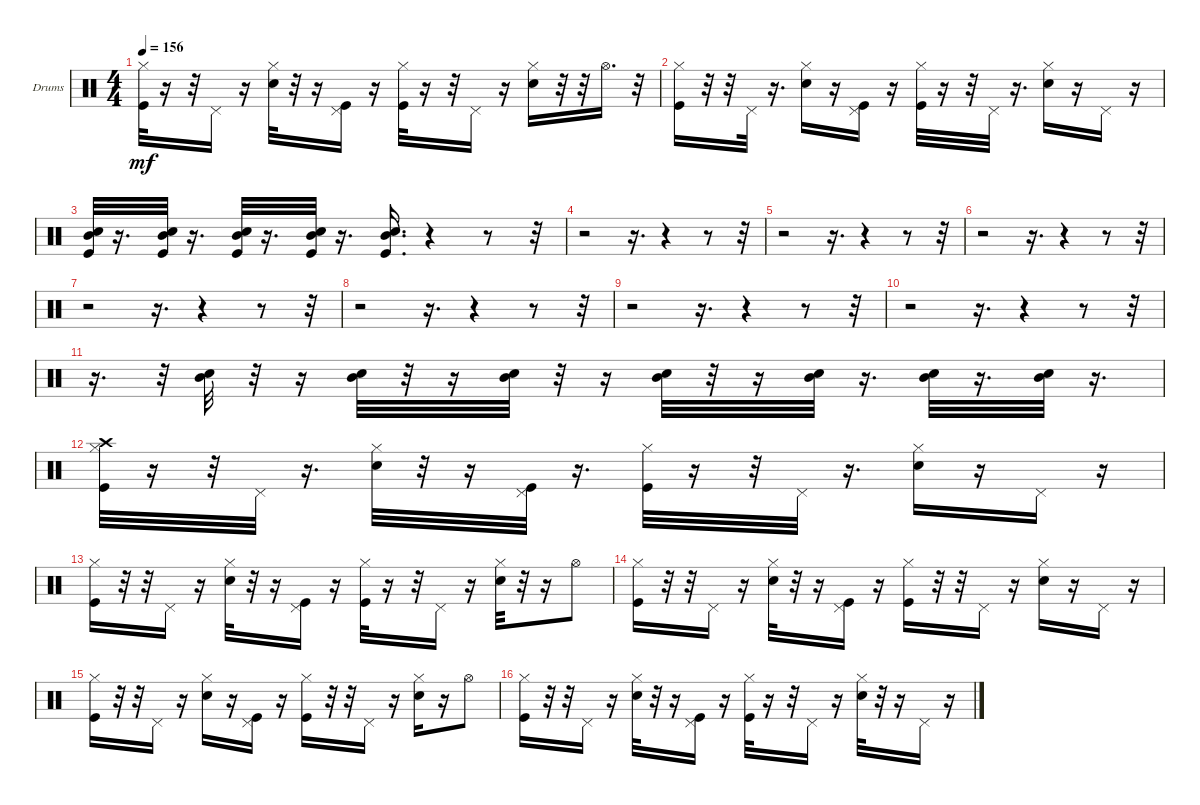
\defaultSystemsLayout 4
\bracketExtendMode groupsimilarinstruments
\firstSystemTrackNameOrientation horizontal
\otherSystemsTrackNameOrientation horizontal
\track ("Drumkit" "Drums") {instrument percussion}
\staff {score}
\articulation defaults
\ts (4 4)
\tempo 156
\clef neutral
\ks c
("Kick (hit)" "Hi-Hat (closed)").32{dy mf} r.16 r.32 "Pedal Hi-Hat (hit)".16 r.16 ("Snare (hit) 2" "Hi-Hat (closed)").32 r.32 r.16 ("Kick (hit)" "Pedal Hi-Hat (hit)").16 r.16 ("Kick (hit)" "Hi-Hat (closed)").32 r.16 r.32 "Pedal Hi-Hat (hit)".16 r.16 ("Snare (hit) 2" "Hi-Hat (closed)").16 r.32 r.32 "Hi-Hat (open)".16{d} r.32 |
("Kick (hit)" "Hi-Hat (closed)").16 r.32 r.32 "Pedal Hi-Hat (hit)".32 r.16{d} ("Snare (hit) 2" "Hi-Hat (closed)").16 r.16 ("Kick (hit)" "Pedal Hi-Hat (hit)").16 r.16 ("Kick (hit)" "Hi-Hat (closed)").32 r.16 r.32 "Pedal Hi-Hat (hit)".32 r.16{d} ("Snare (hit) 2" "Hi-Hat (closed)").16 r.16 "Pedal Hi-Hat (hit)".16 r.16 |
("Mid Tom (hit)" "Snare (hit) 2" "Kick (hit)").32 r.16{d} ("Mid Tom (hit)" "Snare (hit) 2" "Kick (hit)").32 r.16{d} ("Snare (hit) 2" "Mid Tom (hit)" "Kick (hit)").32 r.16{d} ("Mid Tom (hit)" "Kick (hit)" "Snare (hit) 2").32 r.16{d} ("Snare (hit) 2" "Kick (hit)" "Mid Tom (hit)").16{d} r.4 r.8 r.32 |
r.2 r.16{d} r.4 r.8 r.32 |
r.2 r.16{d} r.4 r.8 r.32 |
r.2 r.16{d} r.4 r.8 r.32 |
r.2 r.16{d} r.4 r.8 r.32 |
r.2 r.16{d} r.4 r.8 r.32 |
r.2 r.16{d} r.4 r.8 r.32 |
r.2 r.16{d} r.4 r.8 r.32 |
r.16{d} r.32 ("Snare (hit) 2" "Mid Tom (hit)").32 r.32 r.16 ("Snare (hit) 2" "Mid Tom (hit)").32 r.32 r.16 ("Snare (hit) 2" "Mid Tom (hit)").32 r.32 r.16 ("Snare (hit) 2" "Mid Tom (hit)").32 r.32 r.16 ("Snare (hit) 2" "Mid Tom (hit)").32 r.16{d} ("Mid Tom (hit)" "Snare (hit) 2").32 r.16{d} ("Snare (hit) 2" "Mid Tom (hit)").32 r.16{d} |
("Kick (hit)" "Crash high (hit)" "Hi-Hat (closed)").32 r.16 r.32 "Pedal Hi-Hat (hit)".32 r.16{d} ("Snare (hit) 2" "Hi-Hat (closed)").32 r.32 r.16 ("Kick (hit)" "Pedal Hi-Hat (hit)").32 r.16{d} ("Kick (hit)" "Hi-Hat (closed)").32 r.16 r.32 "Pedal Hi-Hat (hit)".32 r.16{d} ("Snare (hit) 2" "Hi-Hat (closed)").16 r.16 "Pedal Hi-Hat (hit)".16 r.16 |
("Kick (hit)" "Hi-Hat (closed)").16 r.32 r.32 "Pedal Hi-Hat (hit)".16 r.16 ("Snare (hit) 2" "Hi-Hat (closed)").32 r.32 r.16 ("Kick (hit)" "Pedal Hi-Hat (hit)").16 r.16 ("Kick (hit)" "Hi-Hat (closed)").32 r.16 r.32 "Pedal Hi-Hat (hit)".16 r.16 ("Snare (hit) 2" "Hi-Hat (closed)").32 r.32 r.16 "Hi-Hat (open)".8 |
("Kick (hit)" "Hi-Hat (closed)").16 r.32 r.32 "Pedal Hi-Hat (hit)".16 r.16 ("Snare (hit) 2" "Hi-Hat (closed)").32 r.32 r.16 ("Kick (hit)" "Pedal Hi-Hat (hit)").16 r.16 ("Kick (hit)" "Hi-Hat (closed)").16 r.32 r.32 "Pedal Hi-Hat (hit)".16 r.16 ("Snare (hit) 2" "Hi-Hat (closed)").16 r.16 "Pedal Hi-Hat (hit)".16 r.16 |
("Kick (hit)" "Hi-Hat (closed)").16 r.32 r.32 "Pedal Hi-Hat (hit)".16 r.16 ("Snare (hit) 2" "Hi-Hat (closed)").16 r.16 ("Kick (hit)" "Pedal Hi-Hat (hit)").16 r.16 ("Kick (hit)" "Hi-Hat (closed)").16 r.32 r.32 "Pedal Hi-Hat (hit)".16 r.16 ("Snare (hit) 2" "Hi-Hat (closed)").16 r.16 "Hi-Hat (open)".8 |
("Kick (hit)" "Hi-Hat (closed)").16 r.32 r.32 "Pedal Hi-Hat (hit)".16 r.16 ("Snare (hit) 2" "Hi-Hat (closed)").32 r.32 r.16 ("Kick (hit)" "Pedal Hi-Hat (hit)").16 r.16 ("Kick (hit)" "Hi-Hat (closed)").32 r.16 r.32 "Pedal Hi-Hat (hit)".16 r.16 ("Snare (hit) 2" "Hi-Hat (closed)").32 r.32 r.16 "Pedal Hi-Hat (hit)".16 r.16
